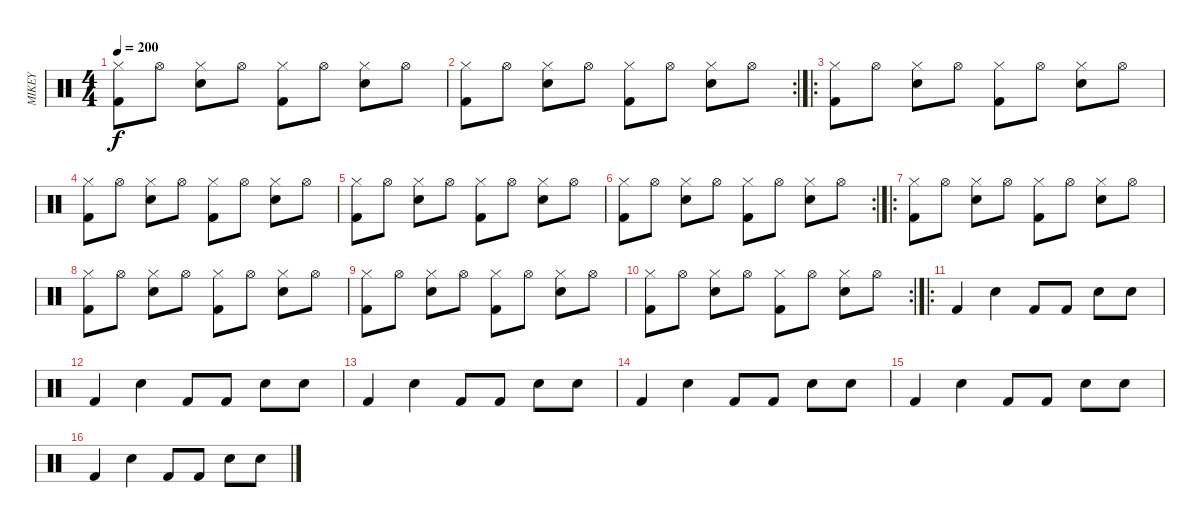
\track ("MIKEY" "MIKEY") {instrument percussion}
\staff {score}
\articulation defaults
\ts (4 4)
\tempo 200
\clef neutral
\ks c
("Hi-Hat (closed)" "Kick (hit) 2").8{dy f} "Hi-Hat (open)".8 ("Hi-Hat (closed)" "Snare (hit) 2").8 "Hi-Hat (open)".8 ("Hi-Hat (closed)" "Kick (hit) 2").8 "Hi-Hat (open)".8 ("Hi-Hat (closed)" "Snare (hit) 2").8 "Hi-Hat (open)".8 |
\rc 2
("Hi-Hat (closed)" "Kick (hit) 2").8 "Hi-Hat (open)".8 ("Hi-Hat (closed)" "Snare (hit) 2").8 "Hi-Hat (open)".8 ("Hi-Hat (closed)" "Kick (hit) 2").8 "Hi-Hat (open)".8 ("Hi-Hat (closed)" "Snare (hit) 2").8 "Hi-Hat (open)".8 |
\ro
("Hi-Hat (closed)" "Kick (hit) 2").8 "Hi-Hat (open)".8 ("Hi-Hat (closed)" "Snare (hit) 2").8 "Hi-Hat (open)".8 ("Hi-Hat (closed)" "Kick (hit) 2").8 "Hi-Hat (open)".8 ("Hi-Hat (closed)" "Snare (hit) 2").8 "Hi-Hat (open)".8 |
("Hi-Hat (closed)" "Kick (hit) 2").8 "Hi-Hat (open)".8 ("Hi-Hat (closed)" "Snare (hit) 2").8 "Hi-Hat (open)".8 ("Hi-Hat (closed)" "Kick (hit) 2").8 "Hi-Hat (open)".8 ("Hi-Hat (closed)" "Snare (hit) 2").8 "Hi-Hat (open)".8 |
("Hi-Hat (closed)" "Kick (hit) 2").8 "Hi-Hat (open)".8 ("Hi-Hat (closed)" "Snare (hit) 2").8 "Hi-Hat (open)".8 ("Hi-Hat (closed)" "Kick (hit) 2").8 "Hi-Hat (open)".8 ("Hi-Hat (closed)" "Snare (hit) 2").8 "Hi-Hat (open)".8 |
\rc 2
("Hi-Hat (closed)" "Kick (hit) 2").8 "Hi-Hat (open)".8 ("Hi-Hat (closed)" "Snare (hit) 2").8 "Hi-Hat (open)".8 ("Hi-Hat (closed)" "Kick (hit) 2").8 "Hi-Hat (open)".8 ("Hi-Hat (closed)" "Snare (hit) 2").8 "Hi-Hat (open)".8 |
\ro
("Hi-Hat (closed)" "Kick (hit) 2").8 "Hi-Hat (open)".8 ("Hi-Hat (closed)" "Snare (hit) 2").8 "Hi-Hat (open)".8 ("Hi-Hat (closed)" "Kick (hit) 2").8 "Hi-Hat (open)".8 ("Hi-Hat (closed)" "Snare (hit) 2").8 "Hi-Hat (open)".8 |
("Hi-Hat (closed)" "Kick (hit) 2").8 "Hi-Hat (open)".8 ("Hi-Hat (closed)" "Snare (hit) 2").8 "Hi-Hat (open)".8 ("Hi-Hat (closed)" "Kick (hit) 2").8 "Hi-Hat (open)".8 ("Hi-Hat (closed)" "Snare (hit) 2").8 "Hi-Hat (open)".8 |
("Hi-Hat (closed)" "Kick (hit) 2").8 "Hi-Hat (open)".8 ("Hi-Hat (closed)" "Snare (hit) 2").8 "Hi-Hat (open)".8 ("Hi-Hat (closed)" "Kick (hit) 2").8 "Hi-Hat (open)".8 ("Hi-Hat (closed)" "Snare (hit) 2").8 "Hi-Hat (open)".8 |
\rc 2
("Hi-Hat (closed)" "Kick (hit) 2").8 "Hi-Hat (open)".8 ("Hi-Hat (closed)" "Snare (hit) 2").8 "Hi-Hat (open)".8 ("Hi-Hat (closed)" "Kick (hit) 2").8 "Hi-Hat (open)".8 ("Hi-Hat (closed)" "Snare (hit) 2").8 "Hi-Hat (open)".8 |
\ro "Kick (hit) 2".4 "Snare (hit) 2".4 "Kick (hit) 2".8 "Kick (hit) 2".8 "Snare (hit) 2".8 "Snare (hit) 2".8
|
"Kick (hit) 2".4 "Snare (hit) 2".4 "Kick (hit) 2".8 "Kick (hit) 2".8 "Snare (hit) 2".8 "Snare (hit) 2".8 |
"Kick (hit) 2".4 "Snare (hit) 2".4 "Kick (hit) 2".8 "Kick (hit) 2".8 "Snare (hit) 2".8 "Snare (hit) 2".8 |
"Kick (hit) 2".4 "Snare (hit) 2".4 "Kick (hit) 2".8 "Kick (hit) 2".8 "Snare (hit) 2".8 "Snare (hit) 2".8 |
"Kick (hit) 2".4 "Snare (hit) 2".4 "Kick (hit) 2".8 "Kick (hit) 2".8 "Snare (hit) 2".8 "Snare (hit) 2".8 |
"Kick (hit) 2".4 "Snare (hit) 2".4 "Kick (hit) 2".8 "Kick (hit) 2".8 "Snare (hit) 2".8 "Snare (hit) 2".8
